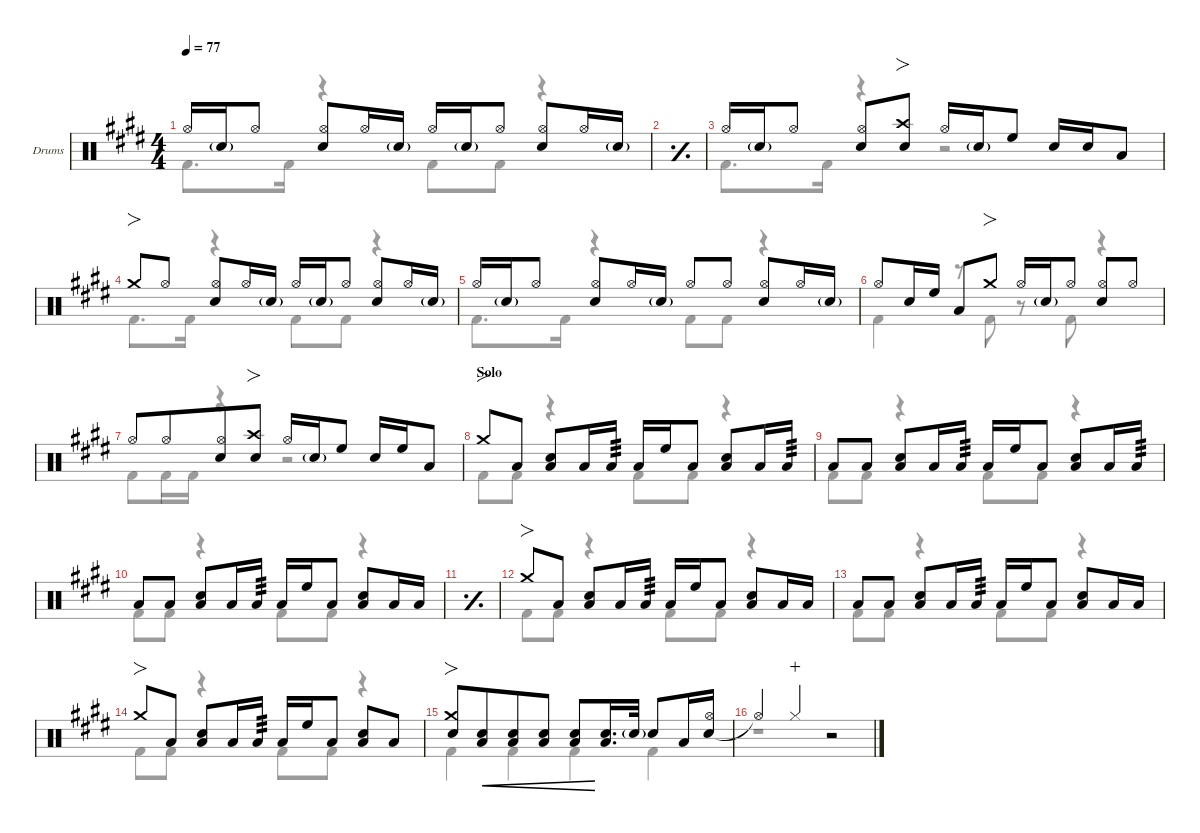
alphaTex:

\defaultSystemsLayout 4
\hideDynamics
\bracketExtendMode nobrackets
\firstSystemTrackNameOrientation horizontal
\track ("Drums" "Drums") {defaultSystemsLayout 4 instrument percussion}
\staff {score}
\articulation defaults
\voice
\ts (4 4)
\tempo 77
\clef neutral
\ks e "Hi-Hat (open)"{acc forcenatural}.16{dy f} "Snare (hit) 2"{g acc forcenatural}.16{dy mf} "Hi-Hat (open)"{acc forcenatural}.8
("Hi-Hat (open)"{acc forcenatural} "Snare (hit) 2"{acc forcenatural}).8{dy f} "Hi-Hat (open)"{acc forcenatural}.16{dy mf} "Snare (hit) 2"{g acc forcenatural}.16 "Hi-Hat (open)"{acc forcenatural}.16{dy f} "Snare (hit) 2"{g acc forcenatural}.16{dy mf} "Hi-Hat (open)"{acc forcenatural}.8 ("Hi-Hat (open)"{acc forcenatural} "Snare (hit) 2"{acc forcenatural}).8{dy f} "Hi-Hat (open)"{acc forcenatural}.16{dy mf} "Snare (hit) 2"{g acc forcenatural}.16 |
\simile simple
|
\simile none "Hi-Hat (open)"{acc forcenatural}.16{dy f} "Snare (hit) 2"{g acc forcenatural}.16{dy mf} "Hi-Hat (open)"{acc forcenatural}.8
("Hi-Hat (open)"{acc forcenatural} "Snare (hit) 2"{acc forcenatural}).8{dy f} ("Crash high (hit)"{acc forcenatural} "Snare (hit) 2"{acc forcenatural}).8{fo} "Hi-Hat (open)"{acc forcenatural}.16 "Snare (hit) 2"{g acc forcenatural}.16{dy mf} "High Floor Tom (hit)"{acc forcenatural}.8{dy f} "Snare (hit) 2"{acc forcenatural}.16 "Snare (hit) 2"{acc forcenatural}.16{dy mf} "Low Tom (hit)"{acc forcenatural}.8{dy f} |
"Crash medium (hit)"{acc forcenatural}.8{fo} "Hi-Hat (open)"{acc forcenatural}.8{dy mf} ("Hi-Hat (open)"{acc forcenatural} "Snare (hit) 2"{acc forcenatural}).8{dy f} "Hi-Hat (open)"{acc forcenatural}.16{dy mf} "Snare (hit) 2"{g acc forcenatural}.16 "Hi-Hat (open)"{acc forcenatural}.16{dy f} "Snare (hit) 2"{g acc forcenatural}.16{dy mf} "Hi-Hat (open)"{acc forcenatural}.8 ("Hi-Hat (open)"{acc forcenatural} "Snare (hit) 2"{acc forcenatural}).8{dy f} "Hi-Hat (open)"{acc forcenatural}.16{dy mf} "Snare (hit) 2"{g acc forcenatural}.16 |
"Hi-Hat (open)"{acc forcenatural}.16{dy f} "Snare (hit) 2"{g acc forcenatural}.16{dy mf} "Hi-Hat (open)"{acc forcenatural}.8 ("Hi-Hat (open)"{acc forcenatural} "Snare (hit) 2"{acc forcenatural}).8{dy f} "Hi-Hat (open)"{acc forcenatural}.16{dy mf} "Snare (hit) 2"{g acc forcenatural}.16 "Hi-Hat (open)"{acc forcenatural}.8{dy f} "Hi-Hat (open)"{acc forcenatural}.8{dy mf beam split} ("Hi-Hat (open)"{acc forcenatural} "Snare (hit) 2"{acc forcenatural}).8{dy f} "Hi-Hat (open)"{acc forcenatural}.16{dy mf} "Snare (hit) 2"{g acc forcenatural}.16 |
"Hi-Hat (open)"{acc forcenatural}.8{dy f beam merge} "Snare (hit) 2"{acc forcenatural}.16 "High Floor Tom (hit)"{acc forcenatural}.16 "Low Tom (hit)"{acc forcenatural}.8 "Crash medium (hit)"{acc forcenatural}.8{fo} "Hi-Hat (open)"{acc forcenatural}.16 "Snare (hit) 2"{g acc forcenatural}.16{dy mf} "Hi-Hat (open)"{acc forcenatural}.8 ("Snare (hit) 2"{acc forcenatural} "Hi-Hat (open)"{acc forcenatural}).8{dy f} "Hi-Hat (open)"{acc forcenatural}.8{dy mf} |
"Hi-Hat (open)"{acc forcenatural}.8{dy f beam merge} "Hi-Hat (open)"{acc forcenatural}.8{dy mf beam merge} ("Hi-Hat (open)"{acc forcenatural} "Snare (hit) 2"{acc forcenatural}).8{dy f beam merge} ("Crash high (hit)"{acc forcenatural} "Snare (hit) 2"{acc forcenatural}).8{fo} "Hi-Hat (open)"{acc forcenatural}.16 "Snare (hit) 2"{g acc forcenatural}.16{dy mf} "High Floor Tom (hit)"{acc forcenatural}.8{dy f} "Snare (hit) 2"{acc forcenatural}.16 "High Floor Tom (hit)"{acc forcenatural}.16 "Low Tom (hit)"{acc forcenatural}.8 |
\section ("" "Solo")
"Crash medium (hit)"{acc forcenatural}.8{fo} "Low Tom (hit)"{acc forcenatural}.8 ("Low Tom (hit)"{acc forcenatural} "Snare (hit) 2"{acc forcenatural}).8 "Low Tom (hit)"{acc forcenatural}.16 "Low Tom (hit)"{acc forcenatural}.16{tp 3 dy mf} "Low Tom (hit)"{acc forcenatural}.16{dy f} "High Floor Tom (hit)"{acc forcenatural}.16 "Low Tom (hit)"{acc forcenatural}.8 ("Low Tom (hit)"{acc forcenatural} "Snare (hit) 2"{acc forcenatural}).8 "Low Tom (hit)"{acc forcenatural}.16 "Low Tom (hit)"{acc forcenatural}.16{tp 3 dy mf} |
"Low Tom (hit)"{acc forcenatural}.8{dy f} "Low Tom (hit)"{acc forcenatural}.8 ("Low Tom (hit)"{acc forcenatural} "Snare (hit) 2"{acc forcenatural}).8 "Low Tom (hit)"{acc forcenatural}.16 "Low Tom (hit)"{acc forcenatural}.16{tp 3 dy mf} "Low Tom (hit)"{acc forcenatural}.16{dy f} "High Floor Tom (hit)"{acc forcenatural}.16 "Low Tom (hit)"{acc forcenatural}.8 ("Low Tom (hit)"{acc forcenatural} "Snare (hit) 2"{acc forcenatural}).8 "Low Tom (hit)"{acc forcenatural}.16 "Low Tom (hit)"{acc forcenatural}.16{tp 3 dy mf} |
"Low Tom (hit)"{acc forcenatural}.8{dy f} "Low Tom (hit)"{acc forcenatural}.8 ("Low Tom (hit)"{acc forcenatural} "Snare (hit) 2"{acc forcenatural}).8 "Low Tom (hit)"{acc forcenatural}.16 "Low Tom (hit)"{acc forcenatural}.16{tp 3 dy mf} "Low Tom (hit)"{acc forcenatural}.16{dy f} "High Floor Tom (hit)"{acc forcenatural}.16 "Low Tom (hit)"{acc forcenatural}.8 ("Low Tom (hit)"{acc forcenatural} "Snare (hit) 2"{acc forcenatural}).8 "Low Tom (hit)"{acc forcenatural}.16 "Low Tom (hit)"{acc forcenatural}.16{dy mf} |
\simile simple
|
\simile none "Crash medium (hit)"{acc forcenatural}.8{fo dy f} "Low Tom (hit)"{acc forcenatural}.8
("Low Tom (hit)"{acc forcenatural} "Snare (hit) 2"{acc forcenatural}).8 "Low Tom (hit)"{acc forcenatural}.16 "Low Tom (hit)"{acc forcenatural}.16{tp 3 dy mf} "Low Tom (hit)"{acc forcenatural}.16{dy f} "High Floor Tom (hit)"{acc forcenatural}.16 "Low Tom (hit)"{acc forcenatural}.8 ("Low Tom (hit)"{acc forcenatural} "Snare (hit) 2"{acc forcenatural}).8 "Low Tom (hit)"{acc forcenatural}.16 "Low Tom (hit)"{acc forcenatural}.16{dy mf} |
"Low Tom (hit)"{acc forcenatural}.8{dy f} "Low Tom (hit)"{acc forcenatural}.8 ("Low Tom (hit)"{acc forcenatural} "Snare (hit) 2"{acc forcenatural}).8 "Low Tom (hit)"{acc forcenatural}.16 "Low Tom (hit)"{acc forcenatural}.16{tp 3 dy mf} "Low Tom (hit)"{acc forcenatural}.16{dy f} "High Floor Tom (hit)"{acc forcenatural}.16 "Low Tom (hit)"{acc forcenatural}.8 ("Low Tom (hit)"{acc forcenatural} "Snare (hit) 2"{acc forcenatural}).8 "Low Tom (hit)"{acc forcenatural}.16 "Low Tom (hit)"{acc forcenatural}.16{dy mf} |
"Crash medium (hit)"{acc forcenatural}.8{fo dy f} "Low Tom (hit)"{acc forcenatural}.8 ("Low Tom (hit)"{acc forcenatural} "Snare (hit) 2"{acc forcenatural}).8 "Low Tom (hit)"{acc forcenatural}.16 "Low Tom (hit)"{acc forcenatural}.16{tp 3 dy mf} "Low Tom (hit)"{acc forcenatural}.16{dy f} "High Floor Tom (hit)"{acc forcenatural}.16 "Low Tom (hit)"{acc forcenatural}.8 ("Low Tom (hit)"{acc forcenatural} "Snare (hit) 2"{acc forcenatural}).8 "Low Tom (hit)"{acc forcenatural}.8 |
("Snare (hit) 2"{acc forcenatural} "Crash medium (hit)"{acc forcenatural}).8{fo beam merge} ("Snare (hit) 2"{acc forcenatural} "Low Tom (hit)"{acc forcenatural}).8{cre dy mp beam merge} ("Snare (hit) 2"{acc forcenatural} "Low Tom (hit)"{acc forcenatural}).8{cre dy mf beam merge} ("Snare (hit) 2"{acc forcenatural} "Low Tom (hit)"{acc forcenatural}).8{cre} ("Snare (hit) 2"{acc forcenatural} "Low Tom (hit)"{acc forcenatural}).8{cre dy f} ("Snare (hit) 2"{acc forcenatural} "Low Tom (hit)"{acc forcenatural}).16{d} "Snare (hit) 2"{g acc forcenatural}.32{dy mf} "Snare (hit) 2"{acc forcenatural}.8{dy f} "Low Tom (hit)"{acc forcenatural}.16 ("Snare (hit) 2"{acc forcenatural} "Hi-Hat (open)"{acc forcenatural}).16 |
"Hi-Hat (open)"{t acc forcenatural}.4 "Hi-Hat (closed)"{acc forcenatural}.4{dy mp wahc} r.2
\voice
\clef neutral
\ottava regular
\simile none
\ks e "Kick (hit) 2"{acc forcenatural}.8{d dy f} "Kick (hit) 2"{acc forcenatural}.16
r.4 "Kick (hit) 2"{acc forcenatural}.8 "Kick (hit) 2"{acc forcenatural}.8 r.4 |
\simile simple
|
\simile none "Kick (hit) 2"{acc forcenatural}.8{d} "Kick (hit) 2"{acc forcenatural}.16
r.4 r.2 |
"Kick (hit) 2"{acc forcenatural}.8{d} "Kick (hit) 2"{acc forcenatural}.16 r.4 "Kick (hit) 2"{acc forcenatural}.8 "Kick (hit) 2"{acc forcenatural}.8 r.4 |
"Kick (hit) 2"{acc forcenatural}.8{d} "Kick (hit) 2"{acc forcenatural}.16 r.4 "Kick (hit) 2"{acc forcenatural}.8 "Kick (hit) 2"{acc forcenatural}.8 r.4 |
"Kick (hit) 2"{acc forcenatural}.4 r.8 "Kick (hit) 2"{acc forcenatural}.8 r.8 "Kick (hit) 2"{acc forcenatural}.8 r.4 |
"Kick (hit) 2"{acc forcenatural}.8 "Kick (hit) 2"{acc forcenatural}.16 "Kick (hit) 2"{acc forcenatural}.16 r.4 r.2 |
"Kick (hit) 2"{acc forcenatural}.8 "Kick (hit) 2"{acc forcenatural}.8 r.4 "Kick (hit) 2"{acc forcenatural}.8 "Kick (hit) 2"{acc forcenatural}.8 r.4 |
"Kick (hit) 2"{acc forcenatural}.8 "Kick (hit) 2"{acc forcenatural}.8 r.4 "Kick (hit) 2"{acc forcenatural}.8 "Kick (hit) 2"{acc forcenatural}.8 r.4 |
"Kick (hit) 2"{acc forcenatural}.8 "Kick (hit) 2"{acc forcenatural}.8 r.4 "Kick (hit) 2"{acc forcenatural}.8 "Kick (hit) 2"{acc forcenatural}.8 r.4 |
\simile simple
|
\simile none "Kick (hit) 2"{acc forcenatural}.8 "Kick (hit) 2"{acc forcenatural}.8
r.4 "Kick (hit) 2"{acc forcenatural}.8 "Kick (hit) 2"{acc forcenatural}.8 r.4 |
"Kick (hit) 2"{acc forcenatural}.8 "Kick (hit) 2"{acc forcenatural}.8 r.4 "Kick (hit) 2"{acc forcenatural}.8 "Kick (hit) 2"{acc forcenatural}.8 r.4 |
"Kick (hit) 2"{acc forcenatural}.8 "Kick (hit) 2"{acc forcenatural}.8 r.4 "Kick (hit) 2"{acc forcenatural}.8 "Kick (hit) 2"{acc forcenatural}.8 r.4 |
"Kick (hit) 2"{acc forcenatural}.4 "Kick (hit) 2"{acc forcenatural}.4 "Kick (hit) 2"{acc forcenatural}.4 "Kick (hit) 2"{acc forcenatural}.4 |
r.1
